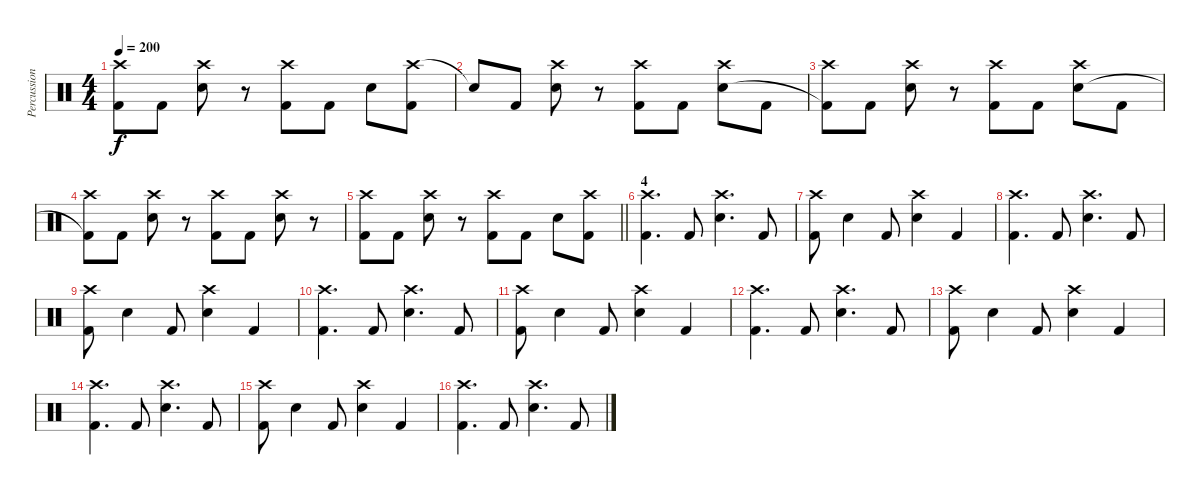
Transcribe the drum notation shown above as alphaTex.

\track ("Percussion" "Percussion") {instrument percussion}
\staff {score}
\articulation defaults
\ts (4 4)
\tempo 200
\clef neutral
\ks c
("Crash high (hit)" "Kick (hit) 2").8{dy f} "Kick (hit) 2".8 ("Crash high (hit)" "Snare (hit) 2").8 r.8 ("Crash high (hit)" "Kick (hit) 2").8 "Kick (hit) 2".8 "Snare (hit) 2".8 ("Crash high (hit)" "Kick (hit) 2").8 |
"Snare (hit)"{t}.8 "Kick (hit) 2".8 ("Crash high (hit)" "Snare (hit) 2").8 r.8 ("Crash high (hit)" "Kick (hit) 2").8 "Kick (hit) 2".8 ("Crash high (hit)" "Snare (hit) 2").8 "Kick (hit) 2".8 |
("Crash high (hit)" "Kick (hit) 2"{t}).8 "Kick (hit) 2".8 ("Crash high (hit)" "Snare (hit) 2").8 r.8 ("Crash high (hit)" "Kick (hit) 2").8 "Kick (hit) 2".8 ("Crash high (hit)" "Snare (hit) 2").8 "Kick (hit) 2".8 |
("Crash high (hit)" "Kick (hit) 2"{t}).8 "Kick (hit) 2".8 ("Crash high (hit)" "Snare (hit) 2").8 r.8 ("Crash high (hit)" "Kick (hit) 2").8 "Kick (hit) 2".8 ("Crash high (hit)" "Snare (hit) 2").8 r.8 |
\barLineRight lightlight
("Crash high (hit)" "Kick (hit) 2").8 "Kick (hit) 2".8 ("Crash high (hit)" "Snare (hit) 2").8 r.8 ("Crash high (hit)" "Kick (hit) 2").8 "Kick (hit) 2".8 "Snare (hit) 2".8 ("Crash high (hit)" "Kick (hit) 2").8 |
\section ("" "4")
("Crash high (hit)" "Kick (hit) 2").4{d} "Kick (hit) 2".8 ("Crash high (hit)" "Snare (hit) 2").4{d} "Kick (hit) 2".8 |
("Crash high (hit)" "Kick (hit) 2").8 "Snare (hit) 2".4 "Kick (hit) 2".8 ("Crash high (hit)" "Snare (hit) 2").4 "Kick (hit) 2".4 |
("Crash high (hit)" "Kick (hit) 2").4{d} "Kick (hit) 2".8 ("Crash high (hit)" "Snare (hit) 2").4{d} "Kick (hit) 2".8 |
("Crash high (hit)" "Kick (hit) 2").8 "Snare (hit) 2".4 "Kick (hit) 2".8 ("Crash high (hit)" "Snare (hit) 2").4 "Kick (hit) 2".4 |
("Crash high (hit)" "Kick (hit) 2").4{d} "Kick (hit) 2".8 ("Crash high (hit)" "Snare (hit) 2").4{d} "Kick (hit) 2".8 |
("Crash high (hit)" "Kick (hit) 2").8 "Snare (hit) 2".4 "Kick (hit) 2".8 ("Crash high (hit)" "Snare (hit) 2").4 "Kick (hit) 2".4 |
("Crash high (hit)" "Kick (hit) 2").4{d} "Kick (hit) 2".8 ("Crash high (hit)" "Snare (hit) 2").4{d} "Kick (hit) 2".8 |
("Crash high (hit)" "Kick (hit) 2").8 "Snare (hit) 2".4 "Kick (hit) 2".8 ("Crash high (hit)" "Snare (hit) 2").4 "Kick (hit) 2".4 |
("Crash high (hit)" "Kick (hit) 2").4{d} "Kick (hit) 2".8 ("Crash high (hit)" "Snare (hit) 2").4{d} "Kick (hit) 2".8 |
("Crash high (hit)" "Kick (hit) 2").8 "Snare (hit) 2".4 "Kick (hit) 2".8 ("Crash high (hit)" "Snare (hit) 2").4 "Kick (hit) 2".4 |
("Crash high (hit)" "Kick (hit) 2").4{d} "Kick (hit) 2".8 ("Crash high (hit)" "Snare (hit) 2").4{d} "Kick (hit) 2".8
